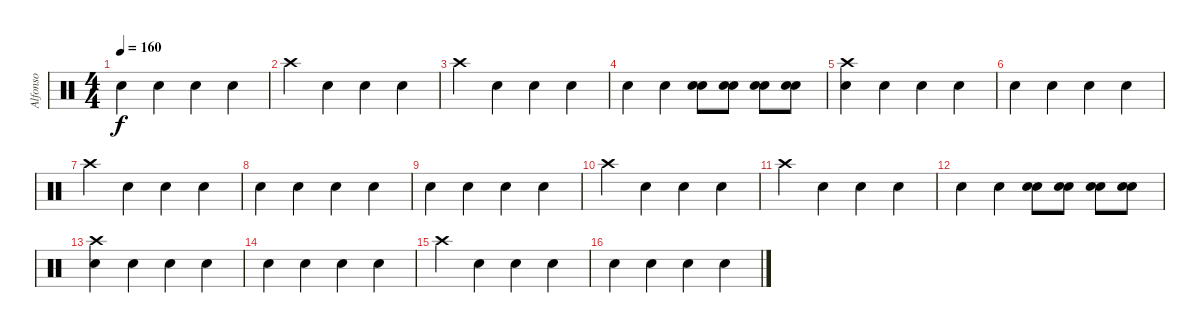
\track ("Alfonso" "Alfonso") {instrument percussion}
\staff {score}
\articulation defaults
\ts (4 4)
\tempo 160
\clef neutral
\ks c "Electric Snare (hit)".4{dy f} "Electric Snare (hit)".4 "Electric Snare (hit)".4 "Electric Snare (hit)".4
|
"Crash high (hit)".4 "Electric Snare (hit)".4 "Electric Snare (hit)".4 "Electric Snare (hit)".4 |
"Crash high (hit)".4 "Electric Snare (hit)".4 "Electric Snare (hit)".4 "Electric Snare (hit)".4 |
"Electric Snare (hit)".4 "Electric Snare (hit)".4 ("Electric Snare (hit)" "Snare (hit) 2").8 ("Electric Snare (hit)" "Snare (hit) 2").8 ("Electric Snare (hit)" "Snare (hit) 2").8 ("Electric Snare (hit)" "Snare (hit) 2").8 |
("Electric Snare (hit)" "Crash high (hit)").4 "Electric Snare (hit)".4 "Electric Snare (hit)".4 "Electric Snare (hit)".4 |
"Electric Snare (hit)".4 "Electric Snare (hit)".4 "Electric Snare (hit)".4 "Electric Snare (hit)".4 |
"Crash high (hit)".4 "Electric Snare (hit)".4 "Electric Snare (hit)".4 "Electric Snare (hit)".4 |
"Electric Snare (hit)".4 "Electric Snare (hit)".4 "Electric Snare (hit)".4 "Electric Snare (hit)".4 |
"Electric Snare (hit)".4 "Electric Snare (hit)".4 "Electric Snare (hit)".4 "Electric Snare (hit)".4 |
"Crash high (hit)".4 "Electric Snare (hit)".4 "Electric Snare (hit)".4 "Electric Snare (hit)".4 |
"Crash high (hit)".4 "Electric Snare (hit)".4 "Electric Snare (hit)".4 "Electric Snare (hit)".4 |
"Electric Snare (hit)".4 "Electric Snare (hit)".4 ("Electric Snare (hit)" "Snare (hit) 2").8 ("Electric Snare (hit)" "Snare (hit) 2").8 ("Electric Snare (hit)" "Snare (hit) 2").8 ("Electric Snare (hit)" "Snare (hit) 2").8 |
("Electric Snare (hit)" "Crash high (hit)").4 "Electric Snare (hit)".4 "Electric Snare (hit)".4 "Electric Snare (hit)".4 |
"Electric Snare (hit)".4 "Electric Snare (hit)".4 "Electric Snare (hit)".4 "Electric Snare (hit)".4 |
"Crash high (hit)".4 "Electric Snare (hit)".4 "Electric Snare (hit)".4 "Electric Snare (hit)".4 |
"Electric Snare (hit)".4 "Electric Snare (hit)".4 "Electric Snare (hit)".4 "Electric Snare (hit)".4
